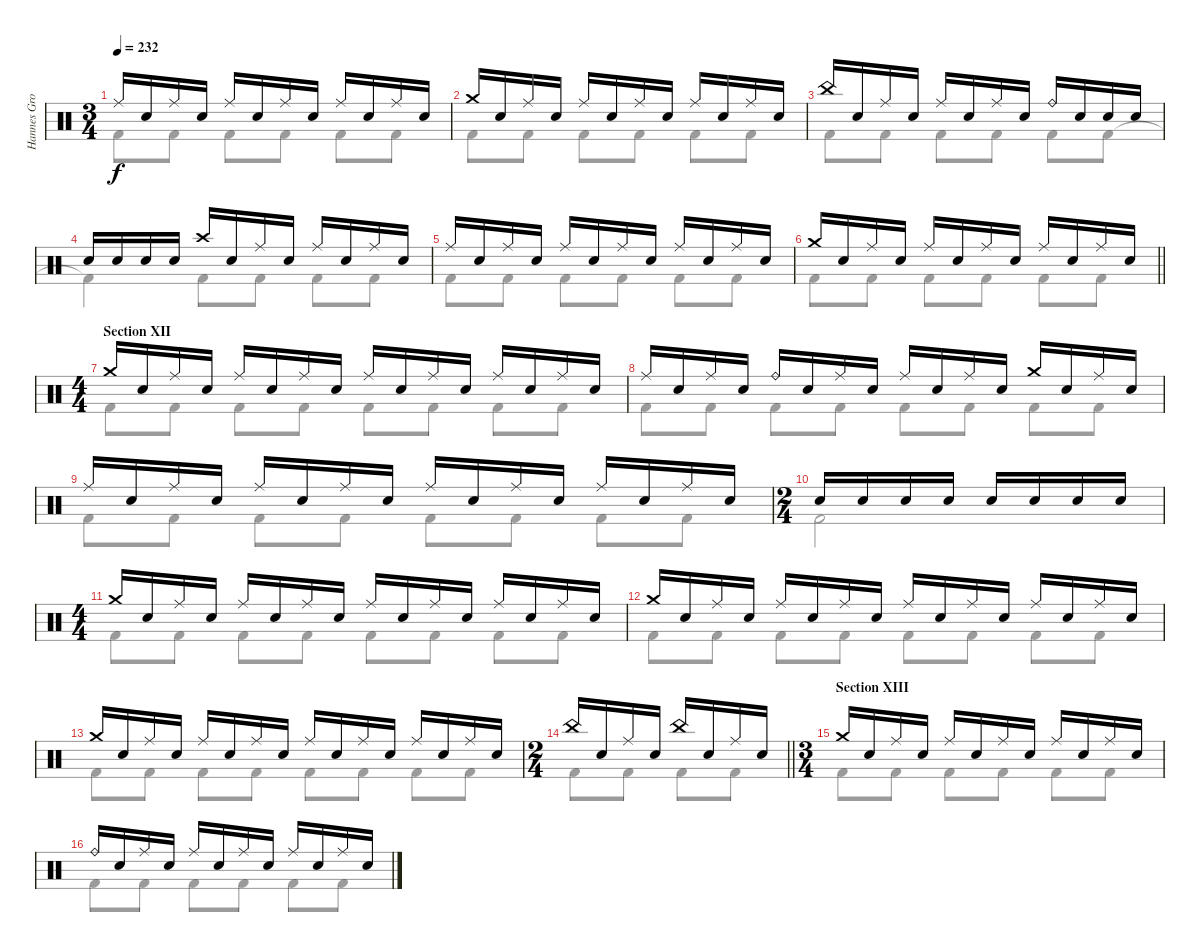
\track ("Hannes Grossman" "Hannes Gro") {instrument percussion}
\staff {score}
\articulation defaults
\voice
\ts (3 4)
\tempo 232
\clef neutral
\ks c "Ride (middle)".16{dy f} "Electric Snare (hit)".16 "Ride (middle)".16 "Electric Snare (hit)".16 "Ride (middle)".16 "Electric Snare (hit)".16 "Ride (middle)".16 "Electric Snare (hit)".16 "Ride (middle)".16 "Electric Snare (hit)".16 "Ride (middle)".16 "Electric Snare (hit)".16
|
"Crash medium (hit)".16 "Electric Snare (hit)".16 "Ride (middle)".16 "Electric Snare (hit)".16 "Ride (middle)".16 "Electric Snare (hit)".16 "Ride (middle)".16 "Electric Snare (hit)".16 "Ride (middle)".16 "Electric Snare (hit)".16 "Ride (middle)".16 "Electric Snare (hit)".16 |
"China (hit)".16 "Electric Snare (hit)".16 "Ride (middle)".16 "Electric Snare (hit)".16 "Ride (middle)".16 "Electric Snare (hit)".16 "Ride (middle)".16 "Electric Snare (hit)".16 "Ride (bell)".16 "Electric Snare (hit)".16 "Electric Snare (hit)".16 "Electric Snare (hit)".16 |
"Electric Snare (hit)".16 "Electric Snare (hit)".16 "Electric Snare (hit)".16 "Electric Snare (hit)".16 "Crash high (hit)".16 "Electric Snare (hit)".16 "Ride (middle)".16 "Electric Snare (hit)".16 "Ride (middle)".16 "Electric Snare (hit)".16 "Ride (middle)".16 "Electric Snare (hit)".16 |
"Ride (middle)".16 "Electric Snare (hit)".16 "Ride (middle)".16 "Electric Snare (hit)".16 "Ride (middle)".16 "Electric Snare (hit)".16 "Ride (middle)".16 "Electric Snare (hit)".16 "Ride (middle)".16 "Electric Snare (hit)".16 "Ride (middle)".16 "Electric Snare (hit)".16 |
\barLineRight lightlight "Crash medium (hit)".16 "Electric Snare (hit)".16 "Ride (middle)".16 "Electric Snare (hit)".16 "Ride (middle)".16 "Electric Snare (hit)".16 "Ride (middle)".16 "Electric Snare (hit)".16 "Ride (middle)".16 "Electric Snare (hit)".16 "Ride (middle)".16 "Electric Snare (hit)".16
|
\ts (4 4)
\section ("" "Section XII")
"Crash medium (hit)".16 "Electric Snare (hit)".16 "Ride (middle)".16 "Electric Snare (hit)".16 "Ride (middle)".16 "Electric Snare (hit)".16 "Ride (middle)".16 "Electric Snare (hit)".16 "Ride (middle)".16 "Electric Snare (hit)".16 "Ride (middle)".16 "Electric Snare (hit)".16 "Ride (middle)".16 "Electric Snare (hit)".16 "Ride (middle)".16 "Electric Snare (hit)".16 |
"Ride (middle)".16 "Electric Snare (hit)".16 "Ride (middle)".16 "Electric Snare (hit)".16 "Ride (bell)".16 "Electric Snare (hit)".16 "Ride (middle)".16 "Electric Snare (hit)".16 "Ride (middle)".16 "Electric Snare (hit)".16 "Ride (middle)".16 "Electric Snare (hit)".16 "Crash medium (hit)".16 "Electric Snare (hit)".16 "Ride (middle)".16 "Electric Snare (hit)".16 |
"Ride (middle)".16 "Electric Snare (hit)".16 "Ride (middle)".16 "Electric Snare (hit)".16 "Ride (middle)".16 "Electric Snare (hit)".16 "Ride (middle)".16 "Electric Snare (hit)".16 "Ride (middle)".16 "Electric Snare (hit)".16 "Ride (middle)".16 "Electric Snare (hit)".16 "Ride (middle)".16 "Electric Snare (hit)".16 "Ride (middle)".16 "Electric Snare (hit)".16 |
\ts (2 4)
"Electric Snare (hit)".16 "Electric Snare (hit)".16 "Electric Snare (hit)".16 "Electric Snare (hit)".16 "Electric Snare (hit)".16 "Electric Snare (hit)".16 "Electric Snare (hit)".16 "Electric Snare (hit)".16 |
\ts (4 4)
"Crash medium (hit)".16 "Electric Snare (hit)".16 "Ride (middle)".16 "Electric Snare (hit)".16 "Ride (middle)".16 "Electric Snare (hit)".16 "Ride (middle)".16 "Electric Snare (hit)".16 "Ride (middle)".16 "Electric Snare (hit)".16 "Ride (middle)".16 "Electric Snare (hit)".16 "Ride (middle)".16 "Electric Snare (hit)".16 "Ride (middle)".16 "Electric Snare (hit)".16 |
"Crash medium (hit)".16 "Electric Snare (hit)".16 "Ride (middle)".16 "Electric Snare (hit)".16 "Ride (middle)".16 "Electric Snare (hit)".16 "Ride (middle)".16 "Electric Snare (hit)".16 "Ride (middle)".16 "Electric Snare (hit)".16 "Ride (middle)".16 "Electric Snare (hit)".16 "Ride (middle)".16 "Electric Snare (hit)".16 "Ride (middle)".16 "Electric Snare (hit)".16 |
"Crash medium (hit)".16 "Electric Snare (hit)".16 "Ride (middle)".16 "Electric Snare (hit)".16 "Ride (middle)".16 "Electric Snare (hit)".16 "Ride (middle)".16 "Electric Snare (hit)".16 "Ride (middle)".16 "Electric Snare (hit)".16 "Ride (middle)".16 "Electric Snare (hit)".16 "Ride (middle)".16 "Electric Snare (hit)".16 "Ride (middle)".16 "Electric Snare (hit)".16 |
\ts (2 4)
\barLineRight lightlight "China (hit)".16 "Electric Snare (hit)".16 "Ride (middle)".16 "Electric Snare (hit)".16 "China (hit)".16 "Electric Snare (hit)".16 "Ride (middle)".16 "Electric Snare (hit)".16
|
\ts (3 4)
\section ("" "Section XIII")
"Crash medium (hit)".16 "Electric Snare (hit)".16 "Ride (middle)".16 "Electric Snare (hit)".16 "Ride (middle)".16 "Electric Snare (hit)".16 "Ride (middle)".16 "Electric Snare (hit)".16 "Ride (middle)".16 "Electric Snare (hit)".16 "Ride (middle)".16 "Electric Snare (hit)".16 |
"Ride (bell)".16 "Electric Snare (hit)".16 "Ride (middle)".16 "Electric Snare (hit)".16 "Ride (middle)".16 "Electric Snare (hit)".16 "Ride (middle)".16 "Electric Snare (hit)".16 "Ride (middle)".16 "Electric Snare (hit)".16 "Ride (middle)".16 "Electric Snare (hit)".16
\voice
\clef neutral
\ottava regular
\simile none
\ks c "Kick (hit) 2".8{dy f} "Kick (hit) 2".8 "Kick (hit) 2".8 "Kick (hit) 2".8 "Kick (hit) 2".8 "Kick (hit) 2".8
|
"Kick (hit) 2".8 "Kick (hit) 2".8 "Kick (hit) 2".8 "Kick (hit) 2".8 "Kick (hit) 2".8 "Kick (hit) 2".8 |
"Kick (hit) 2".8 "Kick (hit) 2".8 "Kick (hit) 2".8 "Kick (hit) 2".8 "Kick (hit) 2".8 "Kick (hit) 2".8 |
"Kick (hit) 2"{t}.4 "Kick (hit) 2".8 "Kick (hit) 2".8 "Kick (hit) 2".8 "Kick (hit) 2".8 |
"Kick (hit) 2".8 "Kick (hit) 2".8 "Kick (hit) 2".8 "Kick (hit) 2".8 "Kick (hit) 2".8 "Kick (hit) 2".8 |
\barLineRight lightlight "Kick (hit) 2".8 "Kick (hit) 2".8 "Kick (hit) 2".8 "Kick (hit) 2".8 "Kick (hit) 2".8 "Kick (hit) 2".8
|
"Kick (hit) 2".8 "Kick (hit) 2".8 "Kick (hit) 2".8 "Kick (hit) 2".8 "Kick (hit) 2".8 "Kick (hit) 2".8 "Kick (hit) 2".8 "Kick (hit) 2".8 |
"Kick (hit) 2".8 "Kick (hit) 2".8 "Kick (hit) 2".8 "Kick (hit) 2".8 "Kick (hit) 2".8 "Kick (hit) 2".8 "Kick (hit) 2".8 "Kick (hit) 2".8 |
"Kick (hit) 2".8 "Kick (hit) 2".8 "Kick (hit) 2".8 "Kick (hit) 2".8 "Kick (hit) 2".8 "Kick (hit) 2".8 "Kick (hit) 2".8 "Kick (hit) 2".8 |
"Kick (hit) 2".2 |
"Kick (hit) 2".8 "Kick (hit) 2".8 "Kick (hit) 2".8 "Kick (hit) 2".8 "Kick (hit) 2".8 "Kick (hit) 2".8 "Kick (hit) 2".8 "Kick (hit) 2".8 |
"Kick (hit) 2".8 "Kick (hit) 2".8 "Kick (hit) 2".8 "Kick (hit) 2".8 "Kick (hit) 2".8 "Kick (hit) 2".8 "Kick (hit) 2".8 "Kick (hit) 2".8 |
"Kick (hit) 2".8 "Kick (hit) 2".8 "Kick (hit) 2".8 "Kick (hit) 2".8 "Kick (hit) 2".8 "Kick (hit) 2".8 "Kick (hit) 2".8 "Kick (hit) 2".8 |
\barLineRight lightlight "Kick (hit) 2".8 "Kick (hit) 2".8 "Kick (hit) 2".8 "Kick (hit) 2".8
|
"Kick (hit) 2".8 "Kick (hit) 2".8 "Kick (hit) 2".8 "Kick (hit) 2".8 "Kick (hit) 2".8 "Kick (hit) 2".8 |
"Kick (hit) 2".8 "Kick (hit) 2".8 "Kick (hit) 2".8 "Kick (hit) 2".8 "Kick (hit) 2".8 "Kick (hit) 2".8
